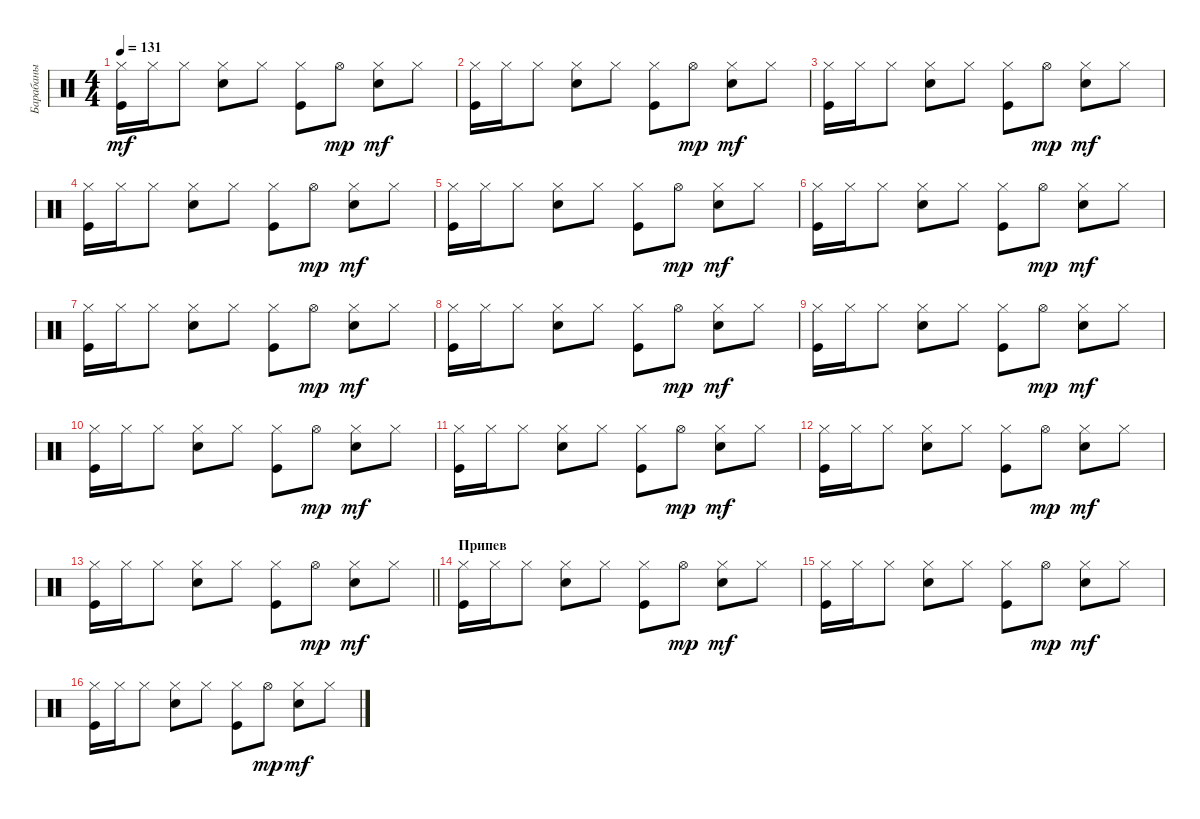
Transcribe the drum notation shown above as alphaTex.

\track ("Барабаны" "Барабаны") {instrument percussion}
\staff {score}
\articulation defaults
\ts (4 4)
\tempo 131
\clef neutral
\ks c
("Kick (hit)" "Hi-Hat (closed)").16{dy mf} "Hi-Hat (closed)".16 "Hi-Hat (closed)".8 ("Snare (hit) 2" "Hi-Hat (closed)").8 "Hi-Hat (closed)".8 ("Kick (hit)" "Hi-Hat (closed)").8 "Hi-Hat (open)".8{dy mp} ("Snare (hit) 2" "Hi-Hat (closed)").8{dy mf} "Hi-Hat (closed)".8 |
("Kick (hit)" "Hi-Hat (closed)").16 "Hi-Hat (closed)".16 "Hi-Hat (closed)".8 ("Snare (hit) 2" "Hi-Hat (closed)").8 "Hi-Hat (closed)".8 ("Kick (hit)" "Hi-Hat (closed)").8 "Hi-Hat (open)".8{dy mp} ("Snare (hit) 2" "Hi-Hat (closed)").8{dy mf} "Hi-Hat (closed)".8 |
("Kick (hit)" "Hi-Hat (closed)").16 "Hi-Hat (closed)".16 "Hi-Hat (closed)".8 ("Snare (hit) 2" "Hi-Hat (closed)").8 "Hi-Hat (closed)".8 ("Kick (hit)" "Hi-Hat (closed)").8 "Hi-Hat (open)".8{dy mp} ("Snare (hit) 2" "Hi-Hat (closed)").8{dy mf} "Hi-Hat (closed)".8 |
("Kick (hit)" "Hi-Hat (closed)").16 "Hi-Hat (closed)".16 "Hi-Hat (closed)".8 ("Snare (hit) 2" "Hi-Hat (closed)").8 "Hi-Hat (closed)".8 ("Kick (hit)" "Hi-Hat (closed)").8 "Hi-Hat (open)".8{dy mp} ("Snare (hit) 2" "Hi-Hat (closed)").8{dy mf} "Hi-Hat (closed)".8 |
("Kick (hit)" "Hi-Hat (closed)").16 "Hi-Hat (closed)".16 "Hi-Hat (closed)".8 ("Snare (hit) 2" "Hi-Hat (closed)").8 "Hi-Hat (closed)".8 ("Kick (hit)" "Hi-Hat (closed)").8 "Hi-Hat (open)".8{dy mp} ("Snare (hit) 2" "Hi-Hat (closed)").8{dy mf} "Hi-Hat (closed)".8 |
("Kick (hit)" "Hi-Hat (closed)").16 "Hi-Hat (closed)".16 "Hi-Hat (closed)".8 ("Snare (hit) 2" "Hi-Hat (closed)").8 "Hi-Hat (closed)".8 ("Kick (hit)" "Hi-Hat (closed)").8 "Hi-Hat (open)".8{dy mp} ("Snare (hit) 2" "Hi-Hat (closed)").8{dy mf} "Hi-Hat (closed)".8 |
("Kick (hit)" "Hi-Hat (closed)").16 "Hi-Hat (closed)".16 "Hi-Hat (closed)".8 ("Snare (hit) 2" "Hi-Hat (closed)").8 "Hi-Hat (closed)".8 ("Kick (hit)" "Hi-Hat (closed)").8 "Hi-Hat (open)".8{dy mp} ("Snare (hit) 2" "Hi-Hat (closed)").8{dy mf} "Hi-Hat (closed)".8 |
("Kick (hit)" "Hi-Hat (closed)").16 "Hi-Hat (closed)".16 "Hi-Hat (closed)".8 ("Snare (hit) 2" "Hi-Hat (closed)").8 "Hi-Hat (closed)".8 ("Kick (hit)" "Hi-Hat (closed)").8 "Hi-Hat (open)".8{dy mp} ("Snare (hit) 2" "Hi-Hat (closed)").8{dy mf} "Hi-Hat (closed)".8 |
("Kick (hit)" "Hi-Hat (closed)").16 "Hi-Hat (closed)".16 "Hi-Hat (closed)".8 ("Snare (hit) 2" "Hi-Hat (closed)").8 "Hi-Hat (closed)".8 ("Kick (hit)" "Hi-Hat (closed)").8 "Hi-Hat (open)".8{dy mp} ("Snare (hit) 2" "Hi-Hat (closed)").8{dy mf} "Hi-Hat (closed)".8 |
("Kick (hit)" "Hi-Hat (closed)").16 "Hi-Hat (closed)".16 "Hi-Hat (closed)".8 ("Snare (hit) 2" "Hi-Hat (closed)").8 "Hi-Hat (closed)".8 ("Kick (hit)" "Hi-Hat (closed)").8 "Hi-Hat (open)".8{dy mp} ("Snare (hit) 2" "Hi-Hat (closed)").8{dy mf} "Hi-Hat (closed)".8 |
("Kick (hit)" "Hi-Hat (closed)").16 "Hi-Hat (closed)".16 "Hi-Hat (closed)".8 ("Snare (hit) 2" "Hi-Hat (closed)").8 "Hi-Hat (closed)".8 ("Kick (hit)" "Hi-Hat (closed)").8 "Hi-Hat (open)".8{dy mp} ("Snare (hit) 2" "Hi-Hat (closed)").8{dy mf} "Hi-Hat (closed)".8 |
("Kick (hit)" "Hi-Hat (closed)").16 "Hi-Hat (closed)".16 "Hi-Hat (closed)".8 ("Snare (hit) 2" "Hi-Hat (closed)").8 "Hi-Hat (closed)".8 ("Kick (hit)" "Hi-Hat (closed)").8 "Hi-Hat (open)".8{dy mp} ("Snare (hit) 2" "Hi-Hat (closed)").8{dy mf} "Hi-Hat (closed)".8 |
\barLineRight lightlight
("Kick (hit)" "Hi-Hat (closed)").16 "Hi-Hat (closed)".16 "Hi-Hat (closed)".8 ("Snare (hit) 2" "Hi-Hat (closed)").8 "Hi-Hat (closed)".8 ("Kick (hit)" "Hi-Hat (closed)").8 "Hi-Hat (open)".8{dy mp} ("Snare (hit) 2" "Hi-Hat (closed)").8{dy mf} "Hi-Hat (closed)".8 |
\section ("" "Припев")
("Kick (hit)" "Hi-Hat (closed)").16 "Hi-Hat (closed)".16 "Hi-Hat (closed)".8 ("Snare (hit) 2" "Hi-Hat (closed)").8 "Hi-Hat (closed)".8 ("Kick (hit)" "Hi-Hat (closed)").8 "Hi-Hat (open)".8{dy mp} ("Snare (hit) 2" "Hi-Hat (closed)").8{dy mf} "Hi-Hat (closed)".8 |
("Kick (hit)" "Hi-Hat (closed)").16 "Hi-Hat (closed)".16 "Hi-Hat (closed)".8 ("Snare (hit) 2" "Hi-Hat (closed)").8 "Hi-Hat (closed)".8 ("Kick (hit)" "Hi-Hat (closed)").8 "Hi-Hat (open)".8{dy mp} ("Snare (hit) 2" "Hi-Hat (closed)").8{dy mf} "Hi-Hat (closed)".8 |
("Kick (hit)" "Hi-Hat (closed)").16 "Hi-Hat (closed)".16 "Hi-Hat (closed)".8 ("Snare (hit) 2" "Hi-Hat (closed)").8 "Hi-Hat (closed)".8 ("Kick (hit)" "Hi-Hat (closed)").8 "Hi-Hat (open)".8{dy mp} ("Snare (hit) 2" "Hi-Hat (closed)").8{dy mf} "Hi-Hat (closed)".8
